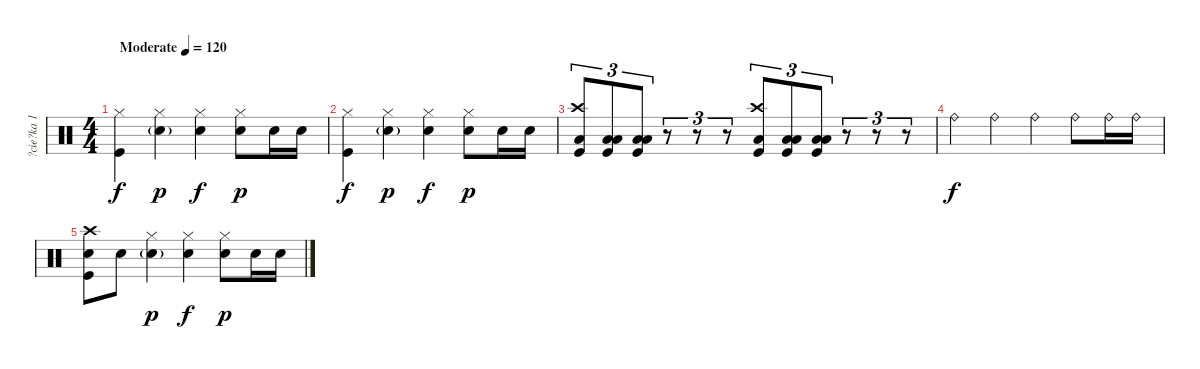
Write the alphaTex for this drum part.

\track ("?cie?ka 1" "?cie?ka 1") {instrument percussion}
\staff {score}
\articulation defaults
\ts (4 4)
\tempo (120 "Moderate")
\clef neutral
\ks c
("Hi-Hat (closed)" "Kick (hit)").4{dy f} ("Hi-Hat (closed)" "Electric Snare (hit)"{g}).4{dy p} ("Hi-Hat (closed)" "Electric Snare (hit)").4{dy f} ("Hi-Hat (closed)" "Electric Snare (hit)").8{dy p} "Electric Snare (hit)".16 "Electric Snare (hit)".16 |
("Hi-Hat (closed)" "Kick (hit)").4{dy f} ("Hi-Hat (closed)" "Electric Snare (hit)"{g}).4{dy p} ("Hi-Hat (closed)" "Electric Snare (hit)").4{dy f} ("Hi-Hat (closed)" "Electric Snare (hit)").8{dy p} "Electric Snare (hit)".16 "Electric Snare (hit)".16 |
("Crash high (hit)" "Low Floor Tom (hit)" "Kick (hit)").8{tu (3 2)} ("Low Tom (hit)" "Low Floor Tom (hit)" "Kick (hit)").8{tu (3 2)} ("Low Tom (hit)" "Low Floor Tom (hit)" "Kick (hit)").8{tu (3 2)} r.8{tu (3 2)} r.8{tu (3 2)} r.8{tu (3 2)} ("Crash high (hit)" "Low Floor Tom (hit)" "Kick (hit)").8{tu (3 2)} ("Low Tom (hit)" "Low Floor Tom (hit)" "Kick (hit)").8{tu (3 2)} ("Low Tom (hit)" "Low Floor Tom (hit)" "Kick (hit)").8{tu (3 2)} r.8{tu (3 2)} r.8{tu (3 2)} r.8{tu (3 2)} |
"Ride (bell)".4{dy f} "Ride (bell)".4 "Ride (bell)".4 "Ride (bell)".8 "Ride (bell)".16 "Ride (bell)".16 |
("Crash high (hit)" "Electric Snare (hit)" "Kick (hit)").8 "Electric Snare (hit)".8 ("Hi-Hat (closed)" "Electric Snare (hit)"{g}).4{dy p} ("Hi-Hat (closed)" "Electric Snare (hit)").4{dy f} ("Hi-Hat (closed)" "Electric Snare (hit)").8{dy p} "Electric Snare (hit)".16 "Electric Snare (hit)".16
